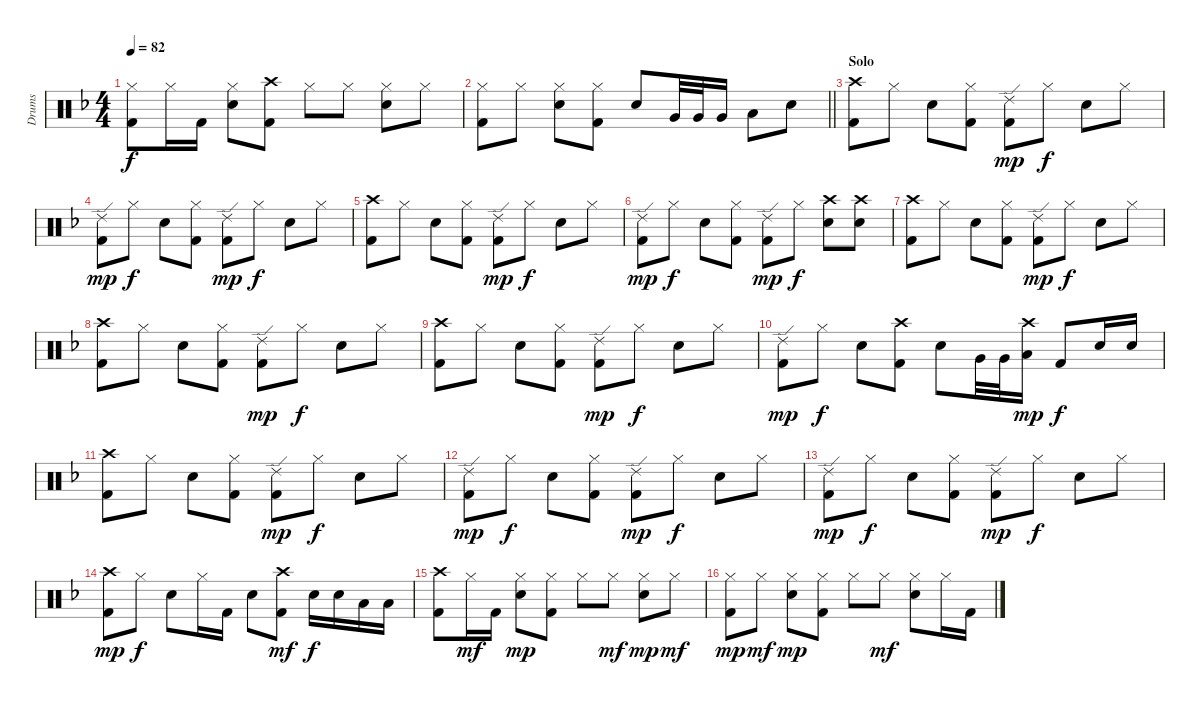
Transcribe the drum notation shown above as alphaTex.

\track ("Drums" "Drums") {instrument percussion}
\staff {score}
\articulation defaults
\ts (4 4)
\tempo 82
\clef neutral
\ks dminor
("Hi-Hat (closed)" "Kick (hit) 2").8{dy f} "Hi-Hat (closed)".16 "Kick (hit) 2".16 ("Hi-Hat (closed)" "Electric Snare (hit)").8 ("Crash high (hit)" "Kick (hit) 2").8 "Hi-Hat (closed)".8 "Hi-Hat (closed)".8 ("Hi-Hat (closed)" "Electric Snare (hit)").8 "Hi-Hat (closed)".8 |
\barLineRight lightlight
("Hi-Hat (closed)" "Kick (hit) 2").8 "Hi-Hat (closed)".8 ("Hi-Hat (closed)" "Electric Snare (hit)").8 ("Hi-Hat (closed)" "Kick (hit) 2").8 "Electric Snare (hit)".8 "Very Low Tom (hit)".32 "Very Low Tom (hit)".32 "Very Low Tom (hit)".16 "Low Floor Tom (hit)".8 "Electric Snare (hit)".8 |
\section ("" "Solo")
("Crash high (hit)" "Kick (hit) 2").8 "Hi-Hat (closed)".8 "Electric Snare (hit)".8 ("Hi-Hat (closed)" "Kick (hit) 2").8 ("Ride (edge) 2" "Kick (hit) 2").8{dy mp} "Hi-Hat (closed)".8{dy f} "Electric Snare (hit)".8 "Hi-Hat (closed)".8 |
("Ride (edge) 2" "Kick (hit) 2").8{dy mp} "Hi-Hat (closed)".8{dy f} "Electric Snare (hit)".8 ("Hi-Hat (closed)" "Kick (hit) 2").8 ("Ride (edge) 2" "Kick (hit) 2").8{dy mp} "Hi-Hat (closed)".8{dy f} "Electric Snare (hit)".8 "Hi-Hat (closed)".8 |
("Crash high (hit)" "Kick (hit) 2").8 "Hi-Hat (closed)".8 "Electric Snare (hit)".8 ("Hi-Hat (closed)" "Kick (hit) 2").8 ("Ride (edge) 2" "Kick (hit) 2").8{dy mp} "Hi-Hat (closed)".8{dy f} "Electric Snare (hit)".8 "Hi-Hat (closed)".8 |
("Ride (edge) 2" "Kick (hit) 2").8{dy mp} "Hi-Hat (closed)".8{dy f} "Electric Snare (hit)".8 ("Hi-Hat (closed)" "Kick (hit) 2").8 ("Ride (edge) 2" "Kick (hit) 2").8{dy mp} "Hi-Hat (closed)".8{dy f} ("Crash high (hit)" "Electric Snare (hit)").8 ("Crash high (hit)" "Electric Snare (hit)").8 |
("Crash high (hit)" "Kick (hit) 2").8 "Hi-Hat (closed)".8 "Electric Snare (hit)".8 ("Hi-Hat (closed)" "Kick (hit) 2").8 ("Ride (edge) 2" "Kick (hit) 2").8{dy mp} "Hi-Hat (closed)".8{dy f} "Electric Snare (hit)".8 "Hi-Hat (closed)".8 |
("Crash high (hit)" "Kick (hit) 2").8 "Hi-Hat (closed)".8 "Electric Snare (hit)".8 ("Hi-Hat (closed)" "Kick (hit) 2").8 ("Ride (edge) 2" "Kick (hit) 2").8{dy mp} "Hi-Hat (closed)".8{dy f} "Electric Snare (hit)".8 "Hi-Hat (closed)".8 |
("Crash high (hit)" "Kick (hit) 2").8 "Hi-Hat (closed)".8 "Electric Snare (hit)".8 ("Hi-Hat (closed)" "Kick (hit) 2").8 ("Ride (edge) 2" "Kick (hit) 2").8{dy mp} "Hi-Hat (closed)".8{dy f} "Electric Snare (hit)".8 "Hi-Hat (closed)".8 |
("Ride (edge) 2" "Kick (hit) 2").8{dy mp} "Hi-Hat (closed)".8{dy f} "Electric Snare (hit)".8 ("Crash high (hit)" "Kick (hit) 2").8 "Electric Snare (hit)".8 "Very Low Tom (hit)".32 "Very Low Tom (hit)".32 ("Crash high (hit)" "Low Floor Tom (hit)").16{dy mp} "Kick (hit) 2".8{dy f} "Electric Snare (hit)".16 "Electric Snare (hit)".16 |
("Crash high (hit)" "Kick (hit) 2").8 "Hi-Hat (closed)".8 "Electric Snare (hit)".8 ("Hi-Hat (closed)" "Kick (hit) 2").8 ("Ride (edge) 2" "Kick (hit) 2").8{dy mp} "Hi-Hat (closed)".8{dy f} "Electric Snare (hit)".8 "Hi-Hat (closed)".8 |
("Ride (edge) 2" "Kick (hit) 2").8{dy mp} "Hi-Hat (closed)".8{dy f} "Electric Snare (hit)".8 ("Hi-Hat (closed)" "Kick (hit) 2").8 ("Ride (edge) 2" "Kick (hit) 2").8{dy mp} "Hi-Hat (closed)".8{dy f} "Electric Snare (hit)".8 "Hi-Hat (closed)".8 |
("Ride (edge) 2" "Kick (hit) 2").8{dy mp} "Hi-Hat (closed)".8{dy f} "Electric Snare (hit)".8 ("Hi-Hat (closed)" "Kick (hit) 2").8 ("Ride (edge) 2" "Kick (hit) 2").8{dy mp} "Hi-Hat (closed)".8{dy f} "Electric Snare (hit)".8 "Hi-Hat (closed)".8 |
("Crash high (hit)" "Kick (hit) 2").8{dy mp} "Hi-Hat (closed)".8{dy f} "Electric Snare (hit)".8 "Hi-Hat (closed)".16 "Kick (hit) 2".16 "Electric Snare (hit)".8 ("Crash high (hit)" "Kick (hit) 2").8{dy mf} "Electric Snare (hit)".16{dy f} "Electric Snare (hit)".16 "Low Floor Tom (hit)".16 "Low Floor Tom (hit)".16 |
("Crash high (hit)" "Kick (hit) 2").8 "Hi-Hat (closed)".16{dy mf} "Kick (hit) 2".16 ("Hi-Hat (closed)" "Electric Snare (hit)").8{dy mp} ("Hi-Hat (closed)" "Kick (hit) 2").8 "Hi-Hat (closed)".8 "Hi-Hat (closed)".8{dy mf} ("Hi-Hat (closed)" "Electric Snare (hit)").8{dy mp} "Hi-Hat (closed)".8{dy mf} |
("Hi-Hat (closed)" "Kick (hit) 2").8{dy mp} "Hi-Hat (closed)".8{dy mf} ("Hi-Hat (closed)" "Electric Snare (hit)").8{dy mp} ("Hi-Hat (closed)" "Kick (hit) 2").8 "Hi-Hat (closed)".8 "Hi-Hat (closed)".8{dy mf} ("Hi-Hat (closed)" "Electric Snare (hit)").8 "Hi-Hat (closed)".16 "Kick (hit) 2".16
